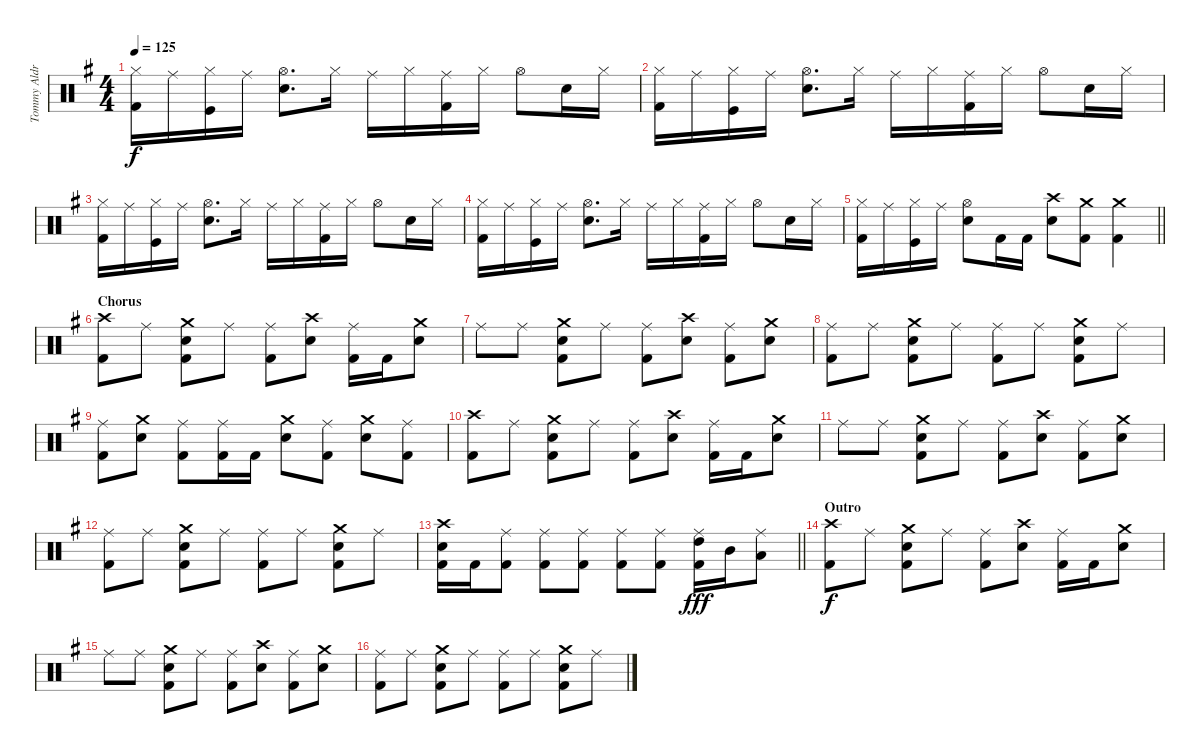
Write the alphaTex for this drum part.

\track ("Tommy Aldridge" "Tommy Aldr") {instrument percussion}
\staff {score}
\articulation defaults
\ts (4 4)
\tempo 125
\clef neutral
\ks eminor
("Hi-Hat (closed)" "Kick (hit) 2").16{dy f} "Ride (middle)".16 ("Hi-Hat (closed)" "Kick (hit)").16 "Ride (middle)".16 ("Hi-Hat (open)" "Snare (hit) 2").8{d} "Hi-Hat (closed)".16 "Ride (middle)".16 "Hi-Hat (closed)".16 ("Ride (middle)" "Kick (hit) 2").16 "Hi-Hat (closed)".16 "Hi-Hat (open)".8 "Snare (hit) 2".16 "Hi-Hat (closed)".16 |
("Hi-Hat (closed)" "Kick (hit) 2").16 "Ride (middle)".16 ("Hi-Hat (closed)" "Kick (hit)").16 "Ride (middle)".16 ("Hi-Hat (open)" "Snare (hit) 2").8{d} "Hi-Hat (closed)".16 "Ride (middle)".16 "Hi-Hat (closed)".16 ("Ride (middle)" "Kick (hit) 2").16 "Hi-Hat (closed)".16 "Hi-Hat (open)".8 "Snare (hit) 2".16 "Hi-Hat (closed)".16 |
("Hi-Hat (closed)" "Kick (hit) 2").16 "Ride (middle)".16 ("Hi-Hat (closed)" "Kick (hit)").16 "Ride (middle)".16 ("Hi-Hat (open)" "Snare (hit) 2").8{d} "Hi-Hat (closed)".16 "Ride (middle)".16 "Hi-Hat (closed)".16 ("Ride (middle)" "Kick (hit) 2").16 "Hi-Hat (closed)".16 "Hi-Hat (open)".8 "Snare (hit) 2".16 "Hi-Hat (closed)".16 |
("Hi-Hat (closed)" "Kick (hit) 2").16 "Ride (middle)".16 ("Hi-Hat (closed)" "Kick (hit)").16 "Ride (middle)".16 ("Hi-Hat (open)" "Snare (hit) 2").8{d} "Hi-Hat (closed)".16 "Ride (middle)".16 "Hi-Hat (closed)".16 ("Ride (middle)" "Kick (hit) 2").16 "Hi-Hat (closed)".16 "Hi-Hat (open)".8 "Snare (hit) 2".16 "Hi-Hat (closed)".16 |
\barLineRight lightlight
("Hi-Hat (closed)" "Kick (hit) 2").16 "Ride (middle)".16 ("Hi-Hat (closed)" "Kick (hit)").16 "Ride (middle)".16 ("Hi-Hat (open)" "Snare (hit) 2").8 "Kick (hit) 2".16 "Kick (hit) 2".16 ("Crash high (hit)" "Snare (hit) 2").8 ("Crash medium (hit)" "Kick (hit) 2").8 ("Crash medium (hit)" "Kick (hit) 2").4 |
\section ("" "Chorus")
("Crash high (hit)" "Kick (hit) 2").8 "Ride (middle)".8 ("Crash medium (hit)" "Snare (hit) 2" "Kick (hit) 2").8 "Ride (middle)".8 ("Ride (middle)" "Kick (hit) 2").8 ("Crash high (hit)" "Snare (hit) 2").8 ("Ride (middle)" "Kick (hit) 2").16 "Kick (hit) 2".16 ("Crash medium (hit)" "Snare (hit) 2").8 |
"Ride (middle)".8 "Ride (middle)".8 ("Crash medium (hit)" "Snare (hit) 2" "Kick (hit) 2").8 "Ride (middle)".8 ("Ride (middle)" "Kick (hit) 2").8 ("Crash high (hit)" "Snare (hit) 2").8 ("Ride (middle)" "Kick (hit) 2").8 ("Crash medium (hit)" "Snare (hit) 2").8 |
("Ride (middle)" "Kick (hit) 2").8 "Ride (middle)".8 ("Crash medium (hit)" "Snare (hit) 2" "Kick (hit) 2").8 "Ride (middle)".8 ("Ride (middle)" "Kick (hit) 2").8 "Ride (middle)".8 ("Crash medium (hit)" "Snare (hit) 2" "Kick (hit) 2").8 "Ride (middle)".8 |
("Ride (middle)" "Kick (hit) 2").8 ("Crash medium (hit)" "Snare (hit) 2").8 ("Ride (middle)" "Kick (hit) 2").8 ("Ride (middle)" "Kick (hit) 2").16 "Kick (hit) 2".16 ("Crash medium (hit)" "Snare (hit) 2").8 ("Ride (middle)" "Kick (hit) 2").8 ("Crash medium (hit)" "Snare (hit) 2").8 ("Ride (middle)" "Kick (hit) 2").8 |
("Crash high (hit)" "Kick (hit) 2").8 "Ride (middle)".8 ("Crash medium (hit)" "Snare (hit) 2" "Kick (hit) 2").8 "Ride (middle)".8 ("Ride (middle)" "Kick (hit) 2").8 ("Crash high (hit)" "Snare (hit) 2").8 ("Ride (middle)" "Kick (hit) 2").16 "Kick (hit) 2".16 ("Crash medium (hit)" "Snare (hit) 2").8 |
"Ride (middle)".8 "Ride (middle)".8 ("Crash medium (hit)" "Snare (hit) 2" "Kick (hit) 2").8 "Ride (middle)".8 ("Ride (middle)" "Kick (hit) 2").8 ("Crash high (hit)" "Snare (hit) 2").8 ("Ride (middle)" "Kick (hit) 2").8 ("Crash medium (hit)" "Snare (hit) 2").8 |
("Ride (middle)" "Kick (hit) 2").8 "Ride (middle)".8 ("Crash medium (hit)" "Snare (hit) 2" "Kick (hit) 2").8 "Ride (middle)".8 ("Ride (middle)" "Kick (hit) 2").8 "Ride (middle)".8 ("Crash medium (hit)" "Snare (hit) 2" "Kick (hit) 2").8 "Ride (middle)".8 |
\barLineRight lightlight
("Crash high (hit)" "Snare (hit) 2" "Kick (hit) 2").16 "Kick (hit) 2".16 ("Ride (middle)" "Kick (hit) 2").8 ("Ride (middle)" "Kick (hit) 2").8 ("Ride (middle)" "Kick (hit) 2").8 ("Ride (middle)" "Kick (hit) 2").8 ("Ride (middle)" "Kick (hit) 2").8 ("Ride (middle)" "High Tom (hit)" "Kick (hit) 2").16{dy fff} "Mid Tom (hit)".16 ("Ride (middle)" "Low Tom (hit)").8 |
\section ("" "Outro")
("Crash high (hit)" "Kick (hit) 2").8{dy f} "Ride (middle)".8 ("Crash medium (hit)" "Snare (hit) 2" "Kick (hit) 2").8 "Ride (middle)".8 ("Ride (middle)" "Kick (hit) 2").8 ("Crash high (hit)" "Snare (hit) 2").8 ("Ride (middle)" "Kick (hit) 2").16 "Kick (hit) 2".16 ("Crash medium (hit)" "Snare (hit) 2").8 |
"Ride (middle)".8 "Ride (middle)".8 ("Crash medium (hit)" "Snare (hit) 2" "Kick (hit) 2").8 "Ride (middle)".8 ("Ride (middle)" "Kick (hit) 2").8 ("Crash high (hit)" "Snare (hit) 2").8 ("Ride (middle)" "Kick (hit) 2").8 ("Crash medium (hit)" "Snare (hit) 2").8 |
("Ride (middle)" "Kick (hit) 2").8 "Ride (middle)".8 ("Crash medium (hit)" "Snare (hit) 2" "Kick (hit) 2").8 "Ride (middle)".8 ("Ride (middle)" "Kick (hit) 2").8 "Ride (middle)".8 ("Crash medium (hit)" "Snare (hit) 2" "Kick (hit) 2").8 "Ride (middle)".8
